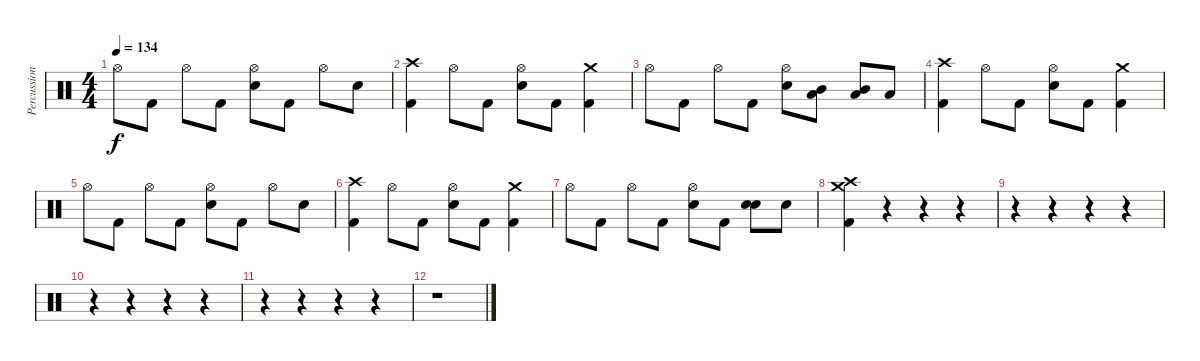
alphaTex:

\track ("Percussion" "Percussion") {instrument percussion}
\staff {score}
\articulation defaults
\ts (4 4)
\tempo 134
\clef neutral
\ks c "Hi-Hat (open)".8{dy f} "Kick (hit) 2".8 "Hi-Hat (open)".8 "Kick (hit) 2".8
("Hi-Hat (open)" "Snare (hit) 2").8 "Kick (hit) 2".8 "Hi-Hat (open)".8 "Snare (hit) 2".8 |
("Crash high (hit)" "Kick (hit) 2").4 "Hi-Hat (open)".8 "Kick (hit) 2".8 ("Hi-Hat (open)" "Snare (hit) 2").8 "Kick (hit) 2".8 ("Crash medium (hit)" "Kick (hit) 2").4 |
"Hi-Hat (open)".8 "Kick (hit) 2".8 "Hi-Hat (open)".8 "Kick (hit) 2".8 ("Hi-Hat (open)" "Snare (hit) 2").8 ("Low Tom (hit)" "Mid Tom (hit)").8{bd 240} ("Low Tom (hit)" "Mid Tom (hit)").8{bd 240} "Low Floor Tom (hit)".8 |
("Crash high (hit)" "Kick (hit) 2").4 "Hi-Hat (open)".8 "Kick (hit) 2".8 ("Hi-Hat (open)" "Snare (hit) 2").8 "Kick (hit) 2".8 ("Crash medium (hit)" "Kick (hit) 2").4 |
"Hi-Hat (open)".8 "Kick (hit) 2".8 "Hi-Hat (open)".8 "Kick (hit) 2".8 ("Hi-Hat (open)" "Snare (hit) 2").8 "Kick (hit) 2".8 "Hi-Hat (open)".8 "Snare (hit) 2".8 |
("Crash high (hit)" "Kick (hit) 2").4 "Hi-Hat (open)".8 "Kick (hit) 2".8 ("Hi-Hat (open)" "Snare (hit) 2").8 "Kick (hit) 2".8 ("Crash medium (hit)" "Kick (hit) 2").4 |
"Hi-Hat (open)".8 "Kick (hit) 2".8 "Hi-Hat (open)".8 "Kick (hit) 2".8 ("Hi-Hat (open)" "Snare (hit) 2").8 "Kick (hit) 2".8 ("Snare (hit) 2" "Snare (hit) 2").8{bd 240} "Snare (hit) 2".8 |
("Crash high (hit)" "Crash medium (hit)" "Kick (hit) 2").4 r.4 r.4 r.4 |
r.4 r.4 r.4 r.4 |
r.4 r.4 r.4 r.4 |
r.4 r.4 r.4 r.4 |
r.1
